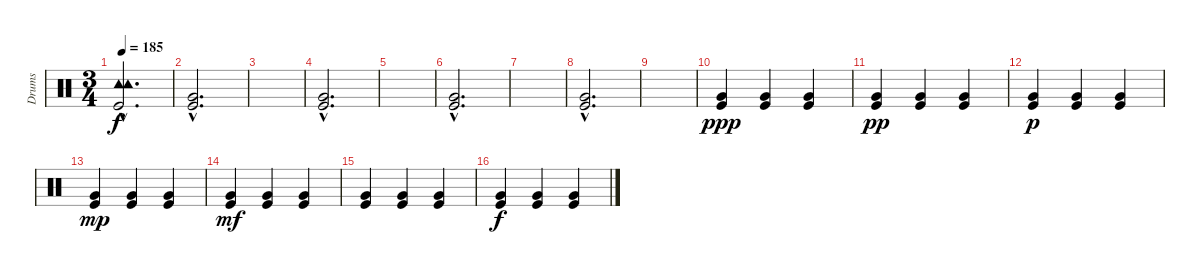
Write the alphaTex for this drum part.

\track ("Drums" "Drums") {instrument percussion}
\staff {score}
\articulation defaults
\ts (3 4)
\tempo 185
\clef neutral
\ks c
("Tambourine (hit)"{hac} "Tambourine (hit)"{hac} "Kick (hit)"{hac}).2{d dy f} |
("Very Low Tom (hit)"{hac} "Kick (hit)"{hac}).2{d} |
|
("Very Low Tom (hit)"{hac} "Kick (hit)"{hac}).2{d} |
|
("Very Low Tom (hit)"{hac} "Kick (hit)"{hac}).2{d} |
|
("Very Low Tom (hit)"{hac} "Kick (hit)"{hac}).2{d} |
|
("Very Low Tom (hit)" "Kick (hit)").4{dy ppp} ("Very Low Tom (hit)" "Kick (hit)").4 ("Very Low Tom (hit)" "Kick (hit)").4 |
("Very Low Tom (hit)" "Kick (hit)").4{dy pp} ("Very Low Tom (hit)" "Kick (hit)").4 ("Very Low Tom (hit)" "Kick (hit)").4 |
("Very Low Tom (hit)" "Kick (hit)").4{dy p} ("Very Low Tom (hit)" "Kick (hit)").4 ("Very Low Tom (hit)" "Kick (hit)").4 |
("Very Low Tom (hit)" "Kick (hit)").4{dy mp} ("Very Low Tom (hit)" "Kick (hit)").4 ("Very Low Tom (hit)" "Kick (hit)").4 |
("Very Low Tom (hit)" "Kick (hit)").4{dy mf} ("Very Low Tom (hit)" "Kick (hit)").4 ("Very Low Tom (hit)" "Kick (hit)").4 |
("Very Low Tom (hit)" "Kick (hit)").4 ("Very Low Tom (hit)" "Kick (hit)").4 ("Very Low Tom (hit)" "Kick (hit)").4 |
("Very Low Tom (hit)" "Kick (hit)").4{dy f} ("Very Low Tom (hit)" "Kick (hit)").4 ("Very Low Tom (hit)" "Kick (hit)").4
